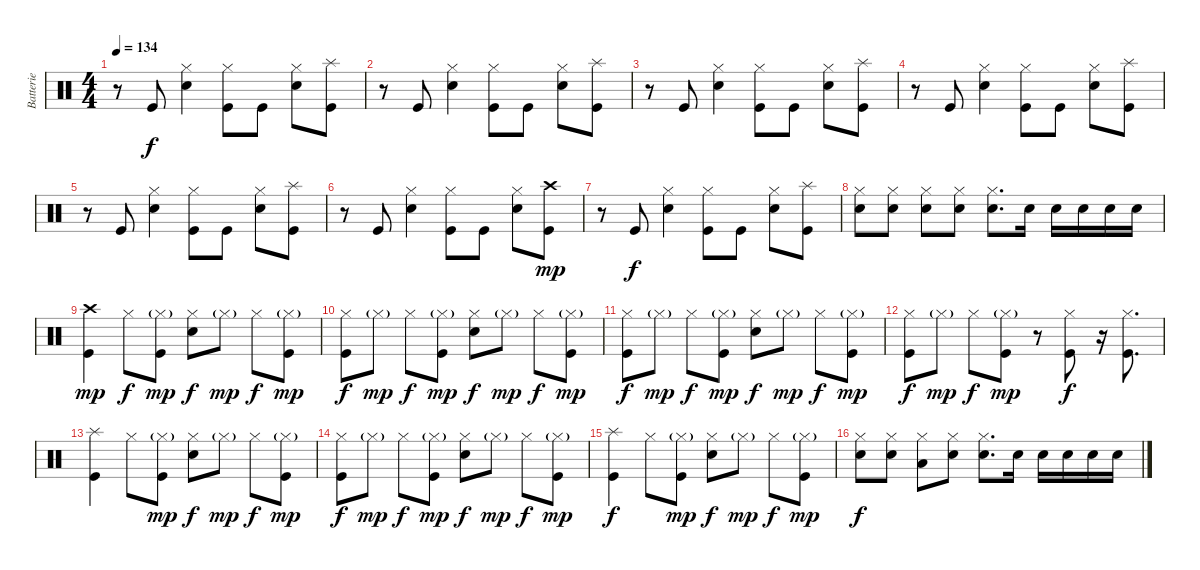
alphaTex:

\track ("Batterie" "Batterie") {instrument percussion}
\staff {score}
\articulation defaults
\ts (4 4)
\tempo 134
\clef neutral
\ks c
r.8{dy f} "Kick (hit)".8 ("Hi-Hat (closed)" "Snare (hit) 2").4 ("Hi-Hat (closed)" "Kick (hit)").8 "Kick (hit)".8 ("Hi-Hat (closed)" "Snare (hit) 2").8 ("Splash (hit)" "Kick (hit)").8 |
r.8 "Kick (hit)".8 ("Hi-Hat (closed)" "Snare (hit) 2").4 ("Hi-Hat (closed)" "Kick (hit)").8 "Kick (hit)".8 ("Hi-Hat (closed)" "Snare (hit) 2").8 ("Splash (hit)" "Kick (hit)").8 |
r.8 "Kick (hit)".8 ("Hi-Hat (closed)" "Snare (hit) 2").4 ("Hi-Hat (closed)" "Kick (hit)").8 "Kick (hit)".8 ("Hi-Hat (closed)" "Snare (hit) 2").8 ("Splash (hit)" "Kick (hit)").8 |
r.8 "Kick (hit)".8 ("Hi-Hat (closed)" "Snare (hit) 2").4 ("Hi-Hat (closed)" "Kick (hit)").8 "Kick (hit)".8 ("Hi-Hat (closed)" "Snare (hit) 2").8 ("Splash (hit)" "Kick (hit)").8 |
r.8 "Kick (hit)".8 ("Hi-Hat (closed)" "Snare (hit) 2").4 ("Hi-Hat (closed)" "Kick (hit)").8 "Kick (hit)".8 ("Hi-Hat (closed)" "Snare (hit) 2").8 ("Splash (hit)" "Kick (hit)").8 |
r.8 "Kick (hit)".8 ("Hi-Hat (closed)" "Snare (hit) 2").4 ("Hi-Hat (closed)" "Kick (hit)").8 "Kick (hit)".8 ("Hi-Hat (closed)" "Snare (hit) 2").8 ("Crash high (hit)" "Kick (hit)").8{dy mp} |
r.8 "Kick (hit)".8{dy f} ("Hi-Hat (closed)" "Snare (hit) 2").4 ("Hi-Hat (closed)" "Kick (hit)").8 "Kick (hit)".8 ("Hi-Hat (closed)" "Snare (hit) 2").8 ("Splash (hit)" "Kick (hit)").8 |
("Hi-Hat (closed)" "Snare (hit) 2").8 ("Hi-Hat (closed)" "Snare (hit) 2").8 ("Hi-Hat (closed)" "Snare (hit) 2").8 ("Hi-Hat (closed)" "Snare (hit) 2").8 ("Hi-Hat (closed)" "Snare (hit) 2").8{d} "Snare (hit) 2".16 "Snare (hit) 2".16 "Snare (hit) 2".16 "Snare (hit) 2".16 "Snare (hit) 2".16 |
("Crash high (hit)" "Kick (hit)").4{dy mp} "Hi-Hat (closed)".8{dy f} ("Hi-Hat (closed)"{g} "Kick (hit)").8{dy mp} ("Hi-Hat (closed)" "Snare (hit) 2").8{dy f} "Hi-Hat (closed)"{g}.8{dy mp} "Hi-Hat (closed)".8{dy f} ("Hi-Hat (closed)"{g} "Kick (hit)").8{dy mp} |
("Hi-Hat (closed)" "Kick (hit)").8{dy f} "Hi-Hat (closed)"{g}.8{dy mp} "Hi-Hat (closed)".8{dy f} ("Hi-Hat (closed)"{g} "Kick (hit)").8{dy mp} ("Hi-Hat (closed)" "Snare (hit) 2").8{dy f} "Hi-Hat (closed)"{g}.8{dy mp} "Hi-Hat (closed)".8{dy f} ("Hi-Hat (closed)"{g} "Kick (hit)").8{dy mp} |
("Hi-Hat (closed)" "Kick (hit)").8{dy f} "Hi-Hat (closed)"{g}.8{dy mp} "Hi-Hat (closed)".8{dy f} ("Hi-Hat (closed)"{g} "Kick (hit)").8{dy mp} ("Hi-Hat (closed)" "Snare (hit) 2").8{dy f} "Hi-Hat (closed)"{g}.8{dy mp} "Hi-Hat (closed)".8{dy f} ("Hi-Hat (closed)"{g} "Kick (hit)").8{dy mp} |
("Hi-Hat (closed)" "Kick (hit)").8{dy f} "Hi-Hat (closed)"{g}.8{dy mp} "Hi-Hat (closed)".8{dy f} ("Hi-Hat (closed)"{g} "Kick (hit)").8{dy mp} r.8 ("Hi-Hat (closed)" "Kick (hit)").8{dy f} r.16 ("Hi-Hat (closed)" "Kick (hit)").8{d} |
("Splash (hit)" "Kick (hit)").4 "Hi-Hat (closed)".8 ("Hi-Hat (closed)"{g} "Kick (hit)").8{dy mp} ("Hi-Hat (closed)" "Snare (hit) 2").8{dy f} "Hi-Hat (closed)"{g}.8{dy mp} "Hi-Hat (closed)".8{dy f} ("Hi-Hat (closed)"{g} "Kick (hit)").8{dy mp} |
("Hi-Hat (closed)" "Kick (hit)").8{dy f} "Hi-Hat (closed)"{g}.8{dy mp} "Hi-Hat (closed)".8{dy f} ("Hi-Hat (closed)"{g} "Kick (hit)").8{dy mp} ("Hi-Hat (closed)" "Snare (hit) 2").8{dy f} "Hi-Hat (closed)"{g}.8{dy mp} "Hi-Hat (closed)".8{dy f} ("Hi-Hat (closed)"{g} "Kick (hit)").8{dy mp} |
("Splash (hit)" "Kick (hit)").4{dy f} "Hi-Hat (closed)".8 ("Hi-Hat (closed)"{g} "Kick (hit)").8{dy mp} ("Hi-Hat (closed)" "Snare (hit) 2").8{dy f} "Hi-Hat (closed)"{g}.8{dy mp} "Hi-Hat (closed)".8{dy f} ("Hi-Hat (closed)"{g} "Kick (hit)").8{dy mp} |
("Hi-Hat (closed)" "Snare (hit) 2").8{dy f} ("Hi-Hat (closed)" "Snare (hit) 2").8 ("Hi-Hat (closed)" "Low Floor Tom (hit)").8 ("Hi-Hat (closed)" "Snare (hit) 2").8 ("Hi-Hat (closed)" "Snare (hit) 2").8{d} "Snare (hit) 2".16 "Snare (hit) 2".16 "Snare (hit) 2".16 "Snare (hit) 2".16 "Snare (hit) 2".16
